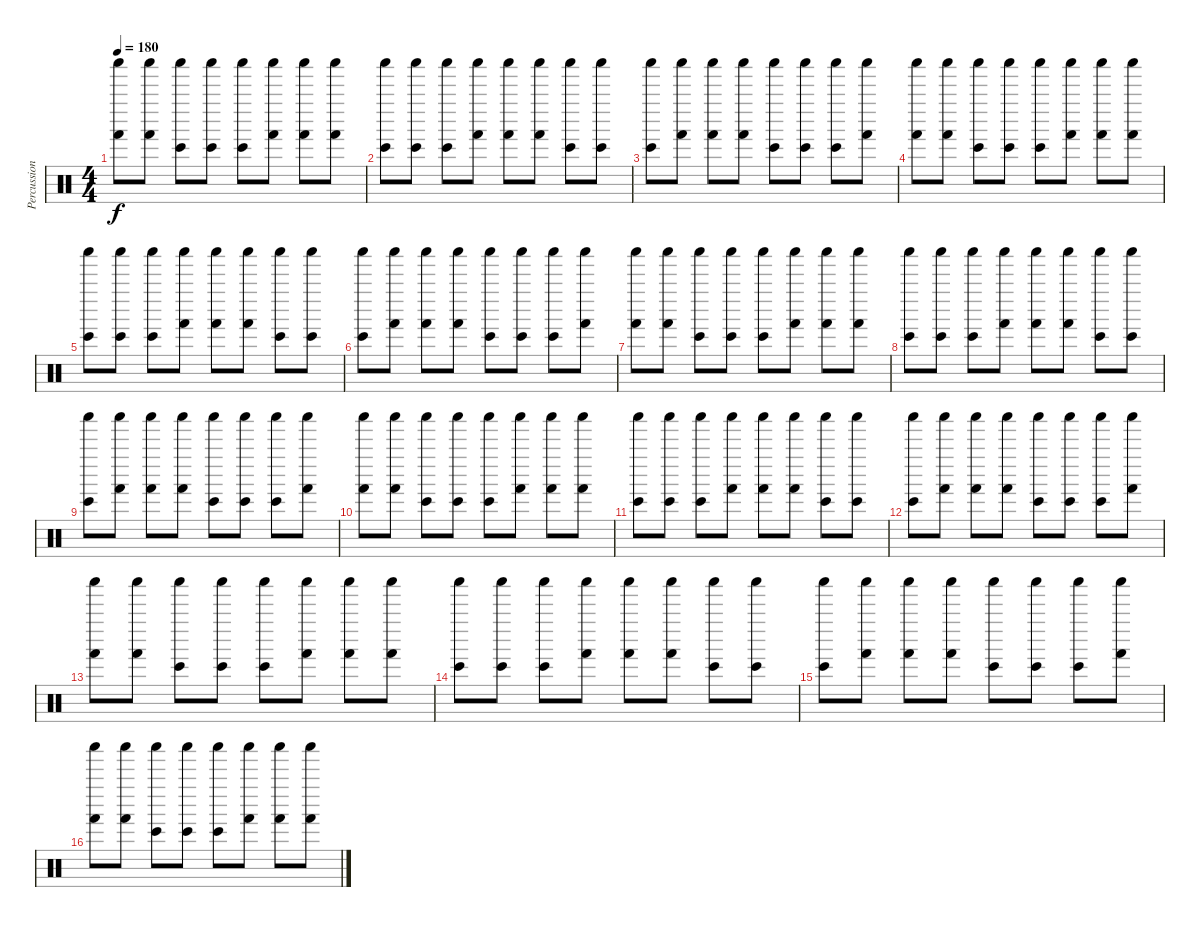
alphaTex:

\track ("Percussion" "Percussion") {instrument percussion}
\staff {score}
\articulation defaults
\ts (4 4)
\tempo 180
\clef neutral
\ks c
("Shaker (hit)" "Hand (hit)").8{dy f} ("Shaker (hit)" "Hand (hit)").8 ("Shaker (hit)" "Bongo High (hit)").8 ("Shaker (hit)" "Bongo High (hit)").8 ("Shaker (hit)" "Bongo High (hit)").8 ("Shaker (hit)" "Hand (hit)").8 ("Shaker (hit)" "Hand (hit)").8 ("Shaker (hit)" "Hand (hit)").8 |
("Shaker (hit)" "Bongo High (hit)").8 ("Shaker (hit)" "Bongo High (hit)").8 ("Shaker (hit)" "Bongo High (hit)").8 ("Shaker (hit)" "Hand (hit)").8 ("Shaker (hit)" "Hand (hit)").8 ("Shaker (hit)" "Hand (hit)").8 ("Shaker (hit)" "Bongo High (hit)").8 ("Shaker (hit)" "Bongo High (hit)").8 |
("Shaker (hit)" "Bongo High (hit)").8 ("Shaker (hit)" "Hand (hit)").8 ("Shaker (hit)" "Hand (hit)").8 ("Shaker (hit)" "Hand (hit)").8 ("Shaker (hit)" "Bongo High (hit)").8 ("Shaker (hit)" "Bongo High (hit)").8 ("Shaker (hit)" "Bongo High (hit)").8 ("Shaker (hit)" "Hand (hit)").8 |
("Shaker (hit)" "Hand (hit)").8 ("Shaker (hit)" "Hand (hit)").8 ("Shaker (hit)" "Bongo High (hit)").8 ("Shaker (hit)" "Bongo High (hit)").8 ("Shaker (hit)" "Bongo High (hit)").8 ("Shaker (hit)" "Hand (hit)").8 ("Shaker (hit)" "Hand (hit)").8 ("Shaker (hit)" "Hand (hit)").8 |
("Shaker (hit)" "Bongo High (hit)").8 ("Shaker (hit)" "Bongo High (hit)").8 ("Shaker (hit)" "Bongo High (hit)").8 ("Shaker (hit)" "Hand (hit)").8 ("Shaker (hit)" "Hand (hit)").8 ("Shaker (hit)" "Hand (hit)").8 ("Shaker (hit)" "Bongo High (hit)").8 ("Shaker (hit)" "Bongo High (hit)").8 |
("Shaker (hit)" "Bongo High (hit)").8 ("Shaker (hit)" "Hand (hit)").8 ("Shaker (hit)" "Hand (hit)").8 ("Shaker (hit)" "Hand (hit)").8 ("Shaker (hit)" "Bongo High (hit)").8 ("Shaker (hit)" "Bongo High (hit)").8 ("Shaker (hit)" "Bongo High (hit)").8 ("Shaker (hit)" "Hand (hit)").8 |
("Shaker (hit)" "Hand (hit)").8 ("Shaker (hit)" "Hand (hit)").8 ("Shaker (hit)" "Bongo High (hit)").8 ("Shaker (hit)" "Bongo High (hit)").8 ("Shaker (hit)" "Bongo High (hit)").8 ("Shaker (hit)" "Hand (hit)").8 ("Shaker (hit)" "Hand (hit)").8 ("Shaker (hit)" "Hand (hit)").8 |
("Shaker (hit)" "Bongo High (hit)").8 ("Shaker (hit)" "Bongo High (hit)").8 ("Shaker (hit)" "Bongo High (hit)").8 ("Shaker (hit)" "Hand (hit)").8 ("Shaker (hit)" "Hand (hit)").8 ("Shaker (hit)" "Hand (hit)").8 ("Shaker (hit)" "Bongo High (hit)").8 ("Shaker (hit)" "Bongo High (hit)").8 |
("Shaker (hit)" "Bongo High (hit)").8 ("Shaker (hit)" "Hand (hit)").8 ("Shaker (hit)" "Hand (hit)").8 ("Shaker (hit)" "Hand (hit)").8 ("Shaker (hit)" "Bongo High (hit)").8 ("Shaker (hit)" "Bongo High (hit)").8 ("Shaker (hit)" "Bongo High (hit)").8 ("Shaker (hit)" "Hand (hit)").8 |
("Shaker (hit)" "Hand (hit)").8 ("Shaker (hit)" "Hand (hit)").8 ("Shaker (hit)" "Bongo High (hit)").8 ("Shaker (hit)" "Bongo High (hit)").8 ("Shaker (hit)" "Bongo High (hit)").8 ("Shaker (hit)" "Hand (hit)").8 ("Shaker (hit)" "Hand (hit)").8 ("Shaker (hit)" "Hand (hit)").8 |
("Shaker (hit)" "Bongo High (hit)").8 ("Shaker (hit)" "Bongo High (hit)").8 ("Shaker (hit)" "Bongo High (hit)").8 ("Shaker (hit)" "Hand (hit)").8 ("Shaker (hit)" "Hand (hit)").8 ("Shaker (hit)" "Hand (hit)").8 ("Shaker (hit)" "Bongo High (hit)").8 ("Shaker (hit)" "Bongo High (hit)").8 |
("Shaker (hit)" "Bongo High (hit)").8 ("Shaker (hit)" "Hand (hit)").8 ("Shaker (hit)" "Hand (hit)").8 ("Shaker (hit)" "Hand (hit)").8 ("Shaker (hit)" "Bongo High (hit)").8 ("Shaker (hit)" "Bongo High (hit)").8 ("Shaker (hit)" "Bongo High (hit)").8 ("Shaker (hit)" "Hand (hit)").8 |
("Shaker (hit)" "Hand (hit)").8 ("Shaker (hit)" "Hand (hit)").8 ("Shaker (hit)" "Bongo High (hit)").8 ("Shaker (hit)" "Bongo High (hit)").8 ("Shaker (hit)" "Bongo High (hit)").8 ("Shaker (hit)" "Hand (hit)").8 ("Shaker (hit)" "Hand (hit)").8 ("Shaker (hit)" "Hand (hit)").8 |
("Shaker (hit)" "Bongo High (hit)").8 ("Shaker (hit)" "Bongo High (hit)").8 ("Shaker (hit)" "Bongo High (hit)").8 ("Shaker (hit)" "Hand (hit)").8 ("Shaker (hit)" "Hand (hit)").8 ("Shaker (hit)" "Hand (hit)").8 ("Shaker (hit)" "Bongo High (hit)").8 ("Shaker (hit)" "Bongo High (hit)").8 |
("Shaker (hit)" "Bongo High (hit)").8 ("Shaker (hit)" "Hand (hit)").8 ("Shaker (hit)" "Hand (hit)").8 ("Shaker (hit)" "Hand (hit)").8 ("Shaker (hit)" "Bongo High (hit)").8 ("Shaker (hit)" "Bongo High (hit)").8 ("Shaker (hit)" "Bongo High (hit)").8 ("Shaker (hit)" "Hand (hit)").8 |
("Shaker (hit)" "Hand (hit)").8 ("Shaker (hit)" "Hand (hit)").8 ("Shaker (hit)" "Bongo High (hit)").8 ("Shaker (hit)" "Bongo High (hit)").8 ("Shaker (hit)" "Bongo High (hit)").8 ("Shaker (hit)" "Hand (hit)").8 ("Shaker (hit)" "Hand (hit)").8 ("Shaker (hit)" "Hand (hit)").8
